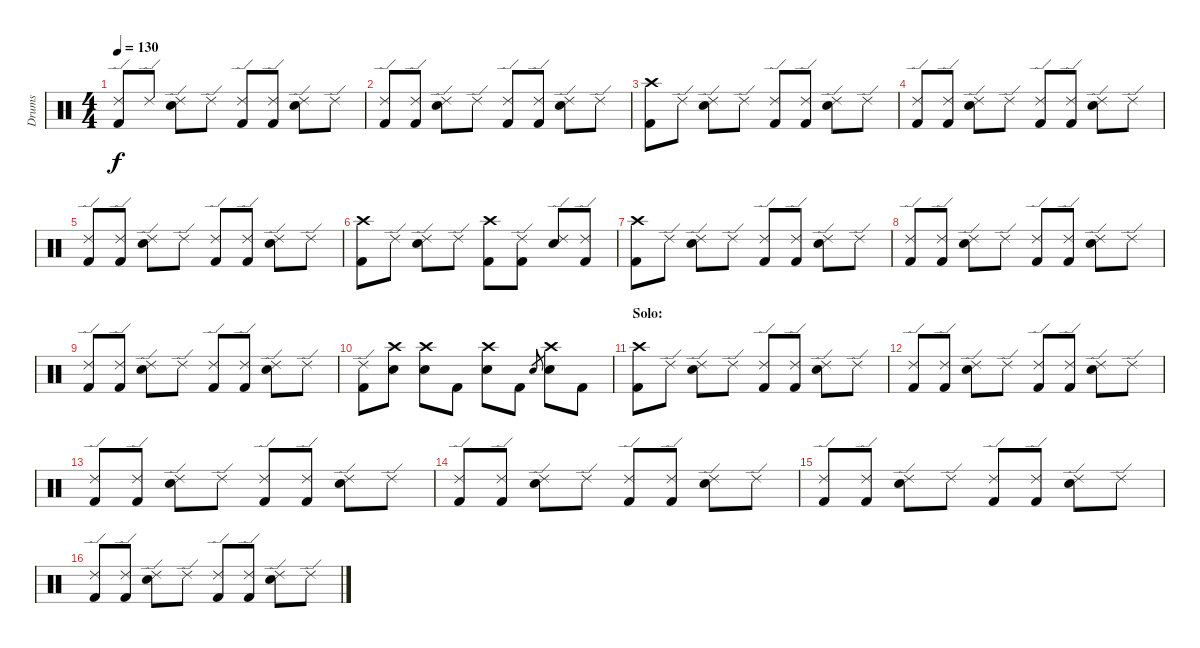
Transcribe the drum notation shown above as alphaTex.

\track ("Drums" "Drums") {instrument percussion}
\staff {score}
\articulation defaults
\ts (4 4)
\tempo 130
\clef neutral
\ks c
("Ride (edge) 2" "Kick (hit) 2").8{dy f} "Ride (edge) 2".8 ("Ride (edge) 2" "Electric Snare (hit)").8 "Ride (edge) 2".8 ("Ride (edge) 2" "Kick (hit) 2").8 ("Ride (edge) 2" "Kick (hit) 2").8 ("Ride (edge) 2" "Electric Snare (hit)").8 "Ride (edge) 2".8 |
("Ride (edge) 2" "Kick (hit) 2").8 ("Ride (edge) 2" "Kick (hit) 2").8 ("Ride (edge) 2" "Electric Snare (hit)").8 "Ride (edge) 2".8 ("Ride (edge) 2" "Kick (hit) 2").8 ("Ride (edge) 2" "Kick (hit) 2").8 ("Ride (edge) 2" "Electric Snare (hit)").8 "Ride (edge) 2".8 |
("Crash high (hit)" "Kick (hit) 2").8 "Ride (edge) 2".8 ("Ride (edge) 2" "Electric Snare (hit)").8 "Ride (edge) 2".8 ("Ride (edge) 2" "Kick (hit) 2").8 ("Ride (edge) 2" "Kick (hit) 2").8 ("Ride (edge) 2" "Electric Snare (hit)").8 "Ride (edge) 2".8 |
("Ride (edge) 2" "Kick (hit) 2").8 ("Ride (edge) 2" "Kick (hit) 2").8 ("Ride (edge) 2" "Electric Snare (hit)").8 "Ride (edge) 2".8 ("Ride (edge) 2" "Kick (hit) 2").8 ("Ride (edge) 2" "Kick (hit) 2").8 ("Ride (edge) 2" "Electric Snare (hit)").8 "Ride (edge) 2".8 |
("Ride (edge) 2" "Kick (hit) 2").8 ("Ride (edge) 2" "Kick (hit) 2").8 ("Ride (edge) 2" "Electric Snare (hit)").8 "Ride (edge) 2".8 ("Ride (edge) 2" "Kick (hit) 2").8 ("Ride (edge) 2" "Kick (hit) 2").8 ("Ride (edge) 2" "Electric Snare (hit)").8 "Ride (edge) 2".8 |
("Crash high (hit)" "Kick (hit) 2").8 "Ride (edge) 2".8 ("Ride (edge) 2" "Electric Snare (hit)").8 "Ride (edge) 2".8 ("Crash high (hit)" "Kick (hit) 2").8 ("Ride (edge) 2" "Kick (hit) 2").8 ("Ride (edge) 2" "Electric Snare (hit)").8 ("Ride (edge) 2" "Kick (hit) 2").8 |
("Crash high (hit)" "Kick (hit) 2").8 "Ride (edge) 2".8 ("Ride (edge) 2" "Electric Snare (hit)").8 "Ride (edge) 2".8 ("Ride (edge) 2" "Kick (hit) 2").8 ("Ride (edge) 2" "Kick (hit) 2").8 ("Ride (edge) 2" "Electric Snare (hit)").8 "Ride (edge) 2".8 |
("Ride (edge) 2" "Kick (hit) 2").8 ("Ride (edge) 2" "Kick (hit) 2").8 ("Ride (edge) 2" "Electric Snare (hit)").8 "Ride (edge) 2".8 ("Ride (edge) 2" "Kick (hit) 2").8 ("Ride (edge) 2" "Kick (hit) 2").8 ("Ride (edge) 2" "Electric Snare (hit)").8 "Ride (edge) 2".8 |
("Ride (edge) 2" "Kick (hit) 2").8 ("Ride (edge) 2" "Kick (hit) 2").8 ("Ride (edge) 2" "Electric Snare (hit)").8 "Ride (edge) 2".8 ("Ride (edge) 2" "Kick (hit) 2").8 ("Ride (edge) 2" "Kick (hit) 2").8 ("Ride (edge) 2" "Electric Snare (hit)").8 "Ride (edge) 2".8 |
("Ride (edge) 2" "Kick (hit) 2").8 ("Crash high (hit)" "Electric Snare (hit)").8 ("Crash high (hit)" "Electric Snare (hit)").8 "Kick (hit) 2".8 ("Crash high (hit)" "Electric Snare (hit)").8 "Kick (hit) 2".8 "Electric Snare (hit)".8{gr} ("Crash high (hit)" "Electric Snare (hit)").8 "Kick (hit) 2".8 |
\section ("" "Solo:")
("Crash high (hit)" "Kick (hit) 2").8 "Ride (edge) 2".8 ("Ride (edge) 2" "Electric Snare (hit)").8 "Ride (edge) 2".8 ("Ride (edge) 2" "Kick (hit) 2").8 ("Ride (edge) 2" "Kick (hit) 2").8 ("Ride (edge) 2" "Electric Snare (hit)").8 "Ride (edge) 2".8 |
("Ride (edge) 2" "Kick (hit) 2").8 ("Ride (edge) 2" "Kick (hit) 2").8 ("Ride (edge) 2" "Electric Snare (hit)").8 "Ride (edge) 2".8 ("Ride (edge) 2" "Kick (hit) 2").8 ("Ride (edge) 2" "Kick (hit) 2").8 ("Ride (edge) 2" "Electric Snare (hit)").8 "Ride (edge) 2".8 |
("Ride (edge) 2" "Kick (hit) 2").8 ("Ride (edge) 2" "Kick (hit) 2").8 ("Ride (edge) 2" "Electric Snare (hit)").8 "Ride (edge) 2".8 ("Ride (edge) 2" "Kick (hit) 2").8 ("Ride (edge) 2" "Kick (hit) 2").8 ("Ride (edge) 2" "Electric Snare (hit)").8 "Ride (edge) 2".8 |
("Ride (edge) 2" "Kick (hit) 2").8 ("Ride (edge) 2" "Kick (hit) 2").8 ("Ride (edge) 2" "Electric Snare (hit)").8 "Ride (edge) 2".8 ("Ride (edge) 2" "Kick (hit) 2").8 ("Ride (edge) 2" "Kick (hit) 2").8 ("Ride (edge) 2" "Electric Snare (hit)").8 "Ride (edge) 2".8 |
("Ride (edge) 2" "Kick (hit) 2").8 ("Ride (edge) 2" "Kick (hit) 2").8 ("Ride (edge) 2" "Electric Snare (hit)").8 "Ride (edge) 2".8 ("Ride (edge) 2" "Kick (hit) 2").8 ("Ride (edge) 2" "Kick (hit) 2").8 ("Ride (edge) 2" "Electric Snare (hit)").8 "Ride (edge) 2".8 |
("Ride (edge) 2" "Kick (hit) 2").8 ("Ride (edge) 2" "Kick (hit) 2").8 ("Ride (edge) 2" "Electric Snare (hit)").8 "Ride (edge) 2".8 ("Ride (edge) 2" "Kick (hit) 2").8 ("Ride (edge) 2" "Kick (hit) 2").8 ("Ride (edge) 2" "Electric Snare (hit)").8 "Ride (edge) 2".8
